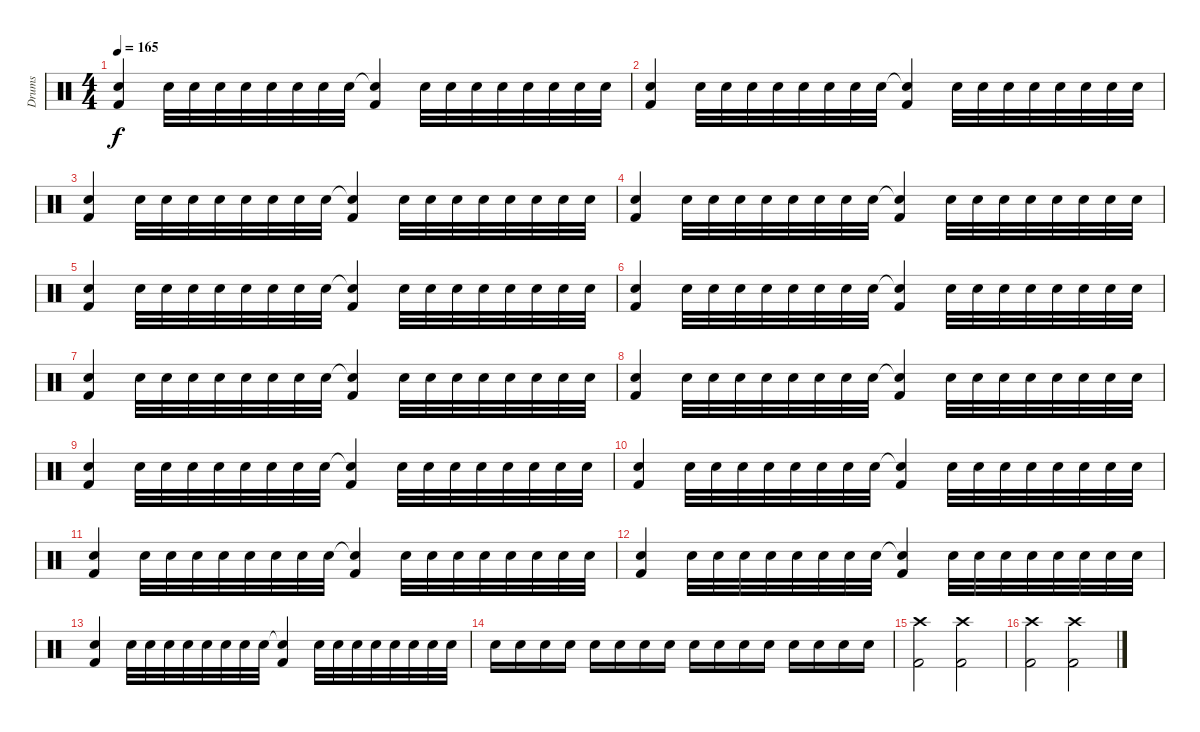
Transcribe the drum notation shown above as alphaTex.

\track ("Drums" "Drums") {instrument percussion}
\staff {score}
\articulation defaults
\ts (4 4)
\tempo 165
\clef neutral
\ks c
("Snare (hit) 2" "Kick (hit) 2").4{dy f} "Snare (hit) 2".32{volume 5} "Snare (hit) 2".32{volume 6} "Snare (hit) 2".32{volume 7} "Snare (hit) 2".32{volume 8} "Snare (hit) 2".32{volume 9} "Snare (hit) 2".32{volume 10} "Snare (hit) 2".32{volume 11} "Snare (hit) 2".32{volume 12} ("Snare (hit)"{t} "Kick (hit) 2").4 "Snare (hit) 2".32{volume 5} "Snare (hit) 2".32{volume 6} "Snare (hit) 2".32{volume 7} "Snare (hit) 2".32{volume 8} "Snare (hit) 2".32{volume 9} "Snare (hit) 2".32{volume 10} "Snare (hit) 2".32{volume 11} "Snare (hit) 2".32 |
("Snare (hit) 2" "Kick (hit) 2").4 "Snare (hit) 2".32{volume 5} "Snare (hit) 2".32{volume 6} "Snare (hit) 2".32{volume 7} "Snare (hit) 2".32{volume 8} "Snare (hit) 2".32{volume 9} "Snare (hit) 2".32{volume 10} "Snare (hit) 2".32{volume 11} "Snare (hit) 2".32{volume 12} ("Snare (hit)"{t} "Kick (hit) 2").4 "Snare (hit) 2".32{volume 5} "Snare (hit) 2".32{volume 6} "Snare (hit) 2".32{volume 7} "Snare (hit) 2".32{volume 8} "Snare (hit) 2".32{volume 9} "Snare (hit) 2".32{volume 10} "Snare (hit) 2".32{volume 11} "Snare (hit) 2".32 |
("Snare (hit) 2" "Kick (hit) 2").4 "Snare (hit) 2".32{volume 5} "Snare (hit) 2".32{volume 6} "Snare (hit) 2".32{volume 7} "Snare (hit) 2".32{volume 8} "Snare (hit) 2".32{volume 9} "Snare (hit) 2".32{volume 10} "Snare (hit) 2".32{volume 11} "Snare (hit) 2".32{volume 12} ("Snare (hit)"{t} "Kick (hit) 2").4 "Snare (hit) 2".32{volume 5} "Snare (hit) 2".32{volume 6} "Snare (hit) 2".32{volume 7} "Snare (hit) 2".32{volume 8} "Snare (hit) 2".32{volume 9} "Snare (hit) 2".32{volume 10} "Snare (hit) 2".32{volume 11} "Snare (hit) 2".32 |
("Snare (hit) 2" "Kick (hit) 2").4 "Snare (hit) 2".32{volume 5} "Snare (hit) 2".32{volume 6} "Snare (hit) 2".32{volume 7} "Snare (hit) 2".32{volume 8} "Snare (hit) 2".32{volume 9} "Snare (hit) 2".32{volume 10} "Snare (hit) 2".32{volume 11} "Snare (hit) 2".32{volume 12} ("Snare (hit)"{t} "Kick (hit) 2").4 "Snare (hit) 2".32{volume 5} "Snare (hit) 2".32{volume 6} "Snare (hit) 2".32{volume 7} "Snare (hit) 2".32{volume 8} "Snare (hit) 2".32{volume 9} "Snare (hit) 2".32{volume 10} "Snare (hit) 2".32{volume 11} "Snare (hit) 2".32 |
("Snare (hit) 2" "Kick (hit) 2").4 "Snare (hit) 2".32{volume 5} "Snare (hit) 2".32{volume 6} "Snare (hit) 2".32{volume 7} "Snare (hit) 2".32{volume 8} "Snare (hit) 2".32{volume 9} "Snare (hit) 2".32{volume 10} "Snare (hit) 2".32{volume 11} "Snare (hit) 2".32{volume 12} ("Snare (hit)"{t} "Kick (hit) 2").4 "Snare (hit) 2".32{volume 5} "Snare (hit) 2".32{volume 6} "Snare (hit) 2".32{volume 7} "Snare (hit) 2".32{volume 8} "Snare (hit) 2".32{volume 9} "Snare (hit) 2".32{volume 10} "Snare (hit) 2".32{volume 11} "Snare (hit) 2".32 |
("Snare (hit) 2" "Kick (hit) 2").4 "Snare (hit) 2".32{volume 5} "Snare (hit) 2".32{volume 6} "Snare (hit) 2".32{volume 7} "Snare (hit) 2".32{volume 8} "Snare (hit) 2".32{volume 9} "Snare (hit) 2".32{volume 10} "Snare (hit) 2".32{volume 11} "Snare (hit) 2".32{volume 12} ("Snare (hit)"{t} "Kick (hit) 2").4 "Snare (hit) 2".32{volume 5} "Snare (hit) 2".32{volume 6} "Snare (hit) 2".32{volume 7} "Snare (hit) 2".32{volume 8} "Snare (hit) 2".32{volume 9} "Snare (hit) 2".32{volume 10} "Snare (hit) 2".32{volume 11} "Snare (hit) 2".32 |
("Snare (hit) 2" "Kick (hit) 2").4 "Snare (hit) 2".32{volume 5} "Snare (hit) 2".32{volume 6} "Snare (hit) 2".32{volume 7} "Snare (hit) 2".32{volume 8} "Snare (hit) 2".32{volume 9} "Snare (hit) 2".32{volume 10} "Snare (hit) 2".32{volume 11} "Snare (hit) 2".32{volume 12} ("Snare (hit)"{t} "Kick (hit) 2").4 "Snare (hit) 2".32{volume 5} "Snare (hit) 2".32{volume 6} "Snare (hit) 2".32{volume 7} "Snare (hit) 2".32{volume 8} "Snare (hit) 2".32{volume 9} "Snare (hit) 2".32{volume 10} "Snare (hit) 2".32{volume 11} "Snare (hit) 2".32 |
("Snare (hit) 2" "Kick (hit) 2").4 "Snare (hit) 2".32{volume 5} "Snare (hit) 2".32{volume 6} "Snare (hit) 2".32{volume 7} "Snare (hit) 2".32{volume 8} "Snare (hit) 2".32{volume 9} "Snare (hit) 2".32{volume 10} "Snare (hit) 2".32{volume 11} "Snare (hit) 2".32{volume 12} ("Snare (hit)"{t} "Kick (hit) 2").4 "Snare (hit) 2".32{volume 5} "Snare (hit) 2".32{volume 6} "Snare (hit) 2".32{volume 7} "Snare (hit) 2".32{volume 8} "Snare (hit) 2".32{volume 9} "Snare (hit) 2".32{volume 10} "Snare (hit) 2".32{volume 11} "Snare (hit) 2".32 |
("Snare (hit) 2" "Kick (hit) 2").4 "Snare (hit) 2".32{volume 5} "Snare (hit) 2".32{volume 6} "Snare (hit) 2".32{volume 7} "Snare (hit) 2".32{volume 8} "Snare (hit) 2".32{volume 9} "Snare (hit) 2".32{volume 10} "Snare (hit) 2".32{volume 11} "Snare (hit) 2".32{volume 12} ("Snare (hit)"{t} "Kick (hit) 2").4 "Snare (hit) 2".32{volume 5} "Snare (hit) 2".32{volume 6} "Snare (hit) 2".32{volume 7} "Snare (hit) 2".32{volume 8} "Snare (hit) 2".32{volume 9} "Snare (hit) 2".32{volume 10} "Snare (hit) 2".32{volume 11} "Snare (hit) 2".32 |
("Snare (hit) 2" "Kick (hit) 2").4 "Snare (hit) 2".32{volume 5} "Snare (hit) 2".32{volume 6} "Snare (hit) 2".32{volume 7} "Snare (hit) 2".32{volume 8} "Snare (hit) 2".32{volume 9} "Snare (hit) 2".32{volume 10} "Snare (hit) 2".32{volume 11} "Snare (hit) 2".32{volume 12} ("Snare (hit)"{t} "Kick (hit) 2").4 "Snare (hit) 2".32{volume 5} "Snare (hit) 2".32{volume 6} "Snare (hit) 2".32{volume 7} "Snare (hit) 2".32{volume 8} "Snare (hit) 2".32{volume 9} "Snare (hit) 2".32{volume 10} "Snare (hit) 2".32{volume 11} "Snare (hit) 2".32 |
("Snare (hit) 2" "Kick (hit) 2").4 "Snare (hit) 2".32{volume 5} "Snare (hit) 2".32{volume 6} "Snare (hit) 2".32{volume 7} "Snare (hit) 2".32{volume 8} "Snare (hit) 2".32{volume 9} "Snare (hit) 2".32{volume 10} "Snare (hit) 2".32{volume 11} "Snare (hit) 2".32{volume 12} ("Snare (hit)"{t} "Kick (hit) 2").4 "Snare (hit) 2".32{volume 5} "Snare (hit) 2".32{volume 6} "Snare (hit) 2".32{volume 7} "Snare (hit) 2".32{volume 8} "Snare (hit) 2".32{volume 9} "Snare (hit) 2".32{volume 10} "Snare (hit) 2".32{volume 11} "Snare (hit) 2".32 |
("Snare (hit) 2" "Kick (hit) 2").4 "Snare (hit) 2".32{volume 5} "Snare (hit) 2".32{volume 6} "Snare (hit) 2".32{volume 7} "Snare (hit) 2".32{volume 8} "Snare (hit) 2".32{volume 9} "Snare (hit) 2".32{volume 10} "Snare (hit) 2".32{volume 11} "Snare (hit) 2".32{volume 12} ("Snare (hit)"{t} "Kick (hit) 2").4 "Snare (hit) 2".32{volume 5} "Snare (hit) 2".32{volume 6} "Snare (hit) 2".32{volume 7} "Snare (hit) 2".32{volume 8} "Snare (hit) 2".32{volume 9} "Snare (hit) 2".32{volume 10} "Snare (hit) 2".32{volume 11} "Snare (hit) 2".32 |
("Snare (hit) 2" "Kick (hit) 2").4 "Snare (hit) 2".32{volume 5} "Snare (hit) 2".32{volume 6} "Snare (hit) 2".32{volume 7} "Snare (hit) 2".32{volume 8} "Snare (hit) 2".32{volume 9} "Snare (hit) 2".32{volume 10} "Snare (hit) 2".32{volume 11} "Snare (hit) 2".32{volume 12} ("Snare (hit)"{t} "Kick (hit) 2").4 "Snare (hit) 2".32{volume 5} "Snare (hit) 2".32{volume 6} "Snare (hit) 2".32{volume 7} "Snare (hit) 2".32{volume 8} "Snare (hit) 2".32{volume 9} "Snare (hit) 2".32{volume 10} "Snare (hit) 2".32{volume 11} "Snare (hit) 2".32 |
"Snare (hit) 2".16{volume 1} "Snare (hit) 2".16{volume 1} "Snare (hit) 2".16{volume 2} "Snare (hit) 2".16{volume 3} "Snare (hit) 2".16{volume 4} "Snare (hit) 2".16{volume 5} "Snare (hit) 2".16{volume 6} "Snare (hit) 2".16{volume 7} "Snare (hit) 2".16{volume 8} "Snare (hit) 2".16{volume 9} "Snare (hit) 2".16{volume 10} "Snare (hit) 2".16{volume 11} "Snare (hit) 2".16{volume 12} "Snare (hit) 2".16{volume 13} "Snare (hit) 2".16{volume 12} "Snare (hit) 2".16 |
("Kick (hit) 2" "Crash high (hit)").2 ("Kick (hit) 2" "Crash high (hit)").2 |
("Kick (hit) 2" "Crash high (hit)").2 ("Kick (hit) 2" "Crash high (hit)").2
